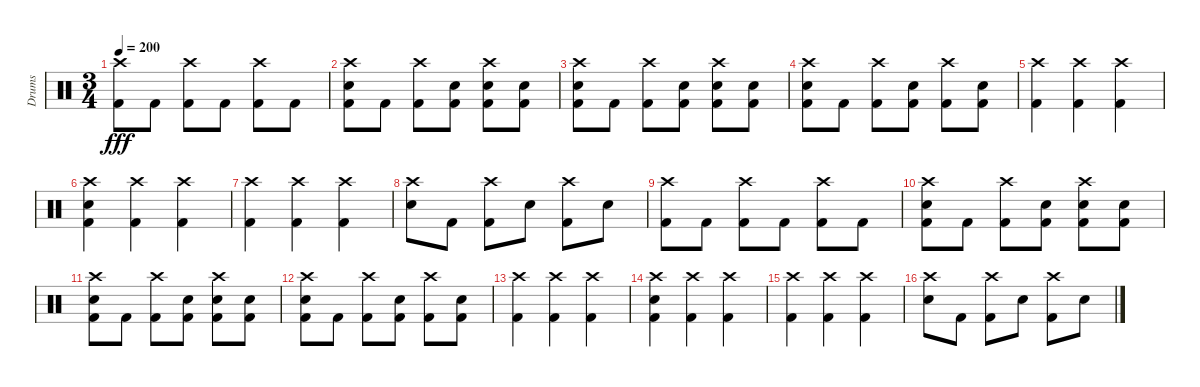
\track ("Drums" "Drums") {instrument percussion}
\staff {score}
\articulation defaults
\ts (3 4)
\tempo 200
\clef neutral
\ks c
("Crash high (hit)" "Kick (hit) 2").8{dy fff} "Kick (hit) 2".8 ("Crash high (hit)" "Kick (hit) 2").8 "Kick (hit) 2".8 ("Crash high (hit)" "Kick (hit) 2").8 "Kick (hit) 2".8 |
("Crash high (hit)" "Electric Snare (hit)" "Kick (hit) 2").8 "Kick (hit) 2".8 ("Crash high (hit)" "Kick (hit) 2").8 ("Electric Snare (hit)" "Kick (hit) 2").8 ("Crash high (hit)" "Electric Snare (hit)" "Kick (hit) 2").8 ("Electric Snare (hit)" "Kick (hit) 2").8 |
("Crash high (hit)" "Electric Snare (hit)" "Kick (hit) 2").8 "Kick (hit) 2".8 ("Crash high (hit)" "Kick (hit) 2").8 ("Electric Snare (hit)" "Kick (hit) 2").8 ("Crash high (hit)" "Electric Snare (hit)" "Kick (hit) 2").8 ("Electric Snare (hit)" "Kick (hit) 2").8 |
("Crash high (hit)" "Electric Snare (hit)" "Kick (hit) 2").8 "Kick (hit) 2".8 ("Crash high (hit)" "Kick (hit) 2").8 ("Electric Snare (hit)" "Kick (hit) 2").8 ("Crash high (hit)" "Kick (hit) 2").8 ("Electric Snare (hit)" "Kick (hit) 2").8 |
("Crash high (hit)" "Kick (hit) 2").4 ("Crash high (hit)" "Kick (hit) 2").4 ("Crash high (hit)" "Kick (hit) 2").4 |
("Crash high (hit)" "Electric Snare (hit)" "Kick (hit) 2").4 ("Crash high (hit)" "Kick (hit) 2").4 ("Crash high (hit)" "Kick (hit) 2").4 |
("Crash high (hit)" "Kick (hit) 2").4 ("Crash high (hit)" "Kick (hit) 2").4 ("Crash high (hit)" "Kick (hit) 2").4 |
("Crash high (hit)" "Electric Snare (hit)").8 "Kick (hit) 2".8 ("Crash high (hit)" "Kick (hit) 2").8 "Electric Snare (hit)".8 ("Crash high (hit)" "Kick (hit) 2").8 "Electric Snare (hit)".8 |
("Crash high (hit)" "Kick (hit) 2").8 "Kick (hit) 2".8 ("Crash high (hit)" "Kick (hit) 2").8 "Kick (hit) 2".8 ("Crash high (hit)" "Kick (hit) 2").8 "Kick (hit) 2".8 |
("Crash high (hit)" "Electric Snare (hit)" "Kick (hit) 2").8 "Kick (hit) 2".8 ("Crash high (hit)" "Kick (hit) 2").8 ("Electric Snare (hit)" "Kick (hit) 2").8 ("Crash high (hit)" "Electric Snare (hit)" "Kick (hit) 2").8 ("Electric Snare (hit)" "Kick (hit) 2").8 |
("Crash high (hit)" "Electric Snare (hit)" "Kick (hit) 2").8 "Kick (hit) 2".8 ("Crash high (hit)" "Kick (hit) 2").8 ("Electric Snare (hit)" "Kick (hit) 2").8 ("Crash high (hit)" "Electric Snare (hit)" "Kick (hit) 2").8 ("Electric Snare (hit)" "Kick (hit) 2").8 |
("Crash high (hit)" "Electric Snare (hit)" "Kick (hit) 2").8 "Kick (hit) 2".8 ("Crash high (hit)" "Kick (hit) 2").8 ("Electric Snare (hit)" "Kick (hit) 2").8 ("Crash high (hit)" "Kick (hit) 2").8 ("Electric Snare (hit)" "Kick (hit) 2").8 |
("Crash high (hit)" "Kick (hit) 2").4 ("Crash high (hit)" "Kick (hit) 2").4 ("Crash high (hit)" "Kick (hit) 2").4 |
("Crash high (hit)" "Electric Snare (hit)" "Kick (hit) 2").4 ("Crash high (hit)" "Kick (hit) 2").4 ("Crash high (hit)" "Kick (hit) 2").4 |
("Crash high (hit)" "Kick (hit) 2").4 ("Crash high (hit)" "Kick (hit) 2").4 ("Crash high (hit)" "Kick (hit) 2").4 |
("Crash high (hit)" "Electric Snare (hit)").8 "Kick (hit) 2".8 ("Crash high (hit)" "Kick (hit) 2").8 "Electric Snare (hit)".8 ("Crash high (hit)" "Kick (hit) 2").8 "Electric Snare (hit)".8
